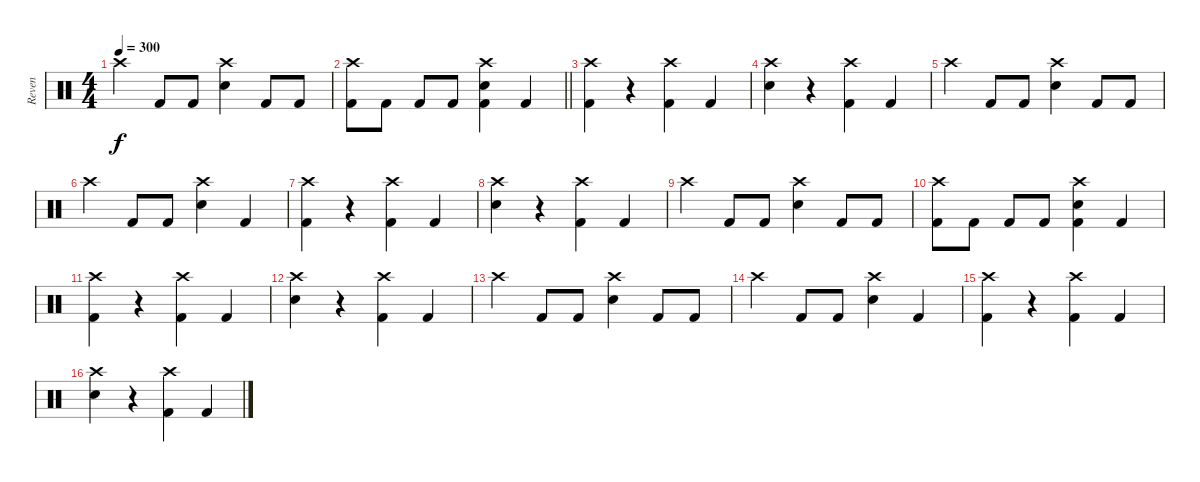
\track ("Reven" "Reven") {instrument percussion}
\staff {score}
\articulation defaults
\ts (4 4)
\tempo 300
\clef neutral
\ks c "Crash high (hit)".4{dy f} "Kick (hit) 2".8 "Kick (hit) 2".8
("Crash high (hit)" "Electric Snare (hit)").4 "Kick (hit) 2".8 "Kick (hit) 2".8 |
\barLineRight lightlight
("Crash high (hit)" "Kick (hit) 2").8 "Kick (hit) 2".8 "Kick (hit) 2".8 "Kick (hit) 2".8 ("Crash high (hit)" "Electric Snare (hit)" "Kick (hit) 2").4 "Kick (hit) 2".4 |
("Crash high (hit)" "Kick (hit) 2").4 r.4 ("Crash high (hit)" "Kick (hit) 2").4 "Kick (hit) 2".4 |
("Crash high (hit)" "Electric Snare (hit)").4 r.4 ("Crash high (hit)" "Kick (hit) 2").4 "Kick (hit) 2".4 |
"Crash high (hit)".4 "Kick (hit) 2".8 "Kick (hit) 2".8 ("Crash high (hit)" "Electric Snare (hit)").4 "Kick (hit) 2".8 "Kick (hit) 2".8 |
"Crash high (hit)".4 "Kick (hit) 2".8 "Kick (hit) 2".8 ("Crash high (hit)" "Electric Snare (hit)").4 "Kick (hit) 2".4 |
("Crash high (hit)" "Kick (hit) 2").4 r.4 ("Crash high (hit)" "Kick (hit) 2").4 "Kick (hit) 2".4 |
("Crash high (hit)" "Electric Snare (hit)").4 r.4 ("Crash high (hit)" "Kick (hit) 2").4 "Kick (hit) 2".4 |
"Crash high (hit)".4 "Kick (hit) 2".8 "Kick (hit) 2".8 ("Crash high (hit)" "Electric Snare (hit)").4 "Kick (hit) 2".8 "Kick (hit) 2".8 |
("Crash high (hit)" "Kick (hit) 2").8 "Kick (hit) 2".8 "Kick (hit) 2".8 "Kick (hit) 2".8 ("Crash high (hit)" "Electric Snare (hit)" "Kick (hit) 2").4 "Kick (hit) 2".4 |
("Crash high (hit)" "Kick (hit) 2").4 r.4 ("Crash high (hit)" "Kick (hit) 2").4 "Kick (hit) 2".4 |
("Crash high (hit)" "Electric Snare (hit)").4 r.4 ("Crash high (hit)" "Kick (hit) 2").4 "Kick (hit) 2".4 |
"Crash high (hit)".4 "Kick (hit) 2".8 "Kick (hit) 2".8 ("Crash high (hit)" "Electric Snare (hit)").4 "Kick (hit) 2".8 "Kick (hit) 2".8 |
"Crash high (hit)".4 "Kick (hit) 2".8 "Kick (hit) 2".8 ("Crash high (hit)" "Electric Snare (hit)").4 "Kick (hit) 2".4 |
("Crash high (hit)" "Kick (hit) 2").4 r.4 ("Crash high (hit)" "Kick (hit) 2").4 "Kick (hit) 2".4 |
("Crash high (hit)" "Electric Snare (hit)").4 r.4 ("Crash high (hit)" "Kick (hit) 2").4 "Kick (hit) 2".4
